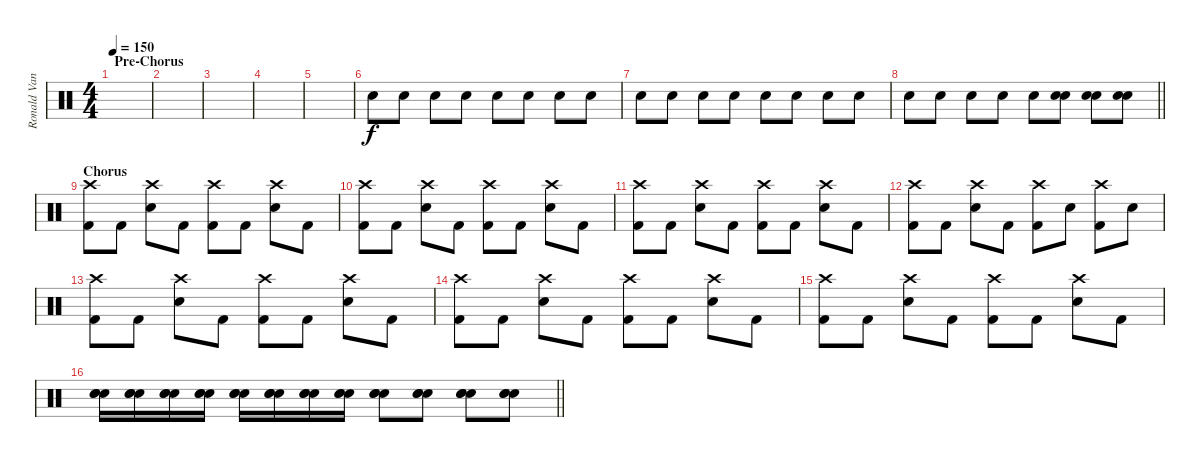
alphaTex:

\track ("Ronald Vanucci Jr (Drums)" "Ronald Van") {instrument percussion}
\staff {score}
\articulation defaults
\ts (4 4)
\section ("" "Pre-Chorus")
\tempo 150
\clef neutral
\ks c
|
|
|
|
|
"Snare (hit) 2".8{volume 14} "Snare (hit) 2".8 "Snare (hit) 2".8 "Snare (hit) 2".8 "Snare (hit) 2".8 "Snare (hit) 2".8 "Snare (hit) 2".8 "Snare (hit) 2".8 |
"Snare (hit) 2".8 "Snare (hit) 2".8 "Snare (hit) 2".8 "Snare (hit) 2".8 "Snare (hit) 2".8 "Snare (hit) 2".8 "Snare (hit) 2".8 "Snare (hit) 2".8 |
\barLineRight lightlight "Snare (hit) 2".8 "Snare (hit) 2".8 "Snare (hit) 2".8 "Snare (hit) 2".8 "Snare (hit) 2".8
("Electric Snare (hit)" "Snare (hit) 2").8 ("Electric Snare (hit)" "Snare (hit) 2").8 ("Electric Snare (hit)" "Snare (hit) 2").8 |
\section ("" "Chorus")
("Crash high (hit)" "Kick (hit) 2").8 "Kick (hit) 2".8 ("Crash high (hit)" "Snare (hit) 2").8 "Kick (hit) 2".8 ("Crash high (hit)" "Kick (hit) 2").8 "Kick (hit) 2".8 ("Crash high (hit)" "Snare (hit) 2").8 "Kick (hit) 2".8 |
("Crash high (hit)" "Kick (hit) 2").8 "Kick (hit) 2".8 ("Crash high (hit)" "Snare (hit) 2").8 "Kick (hit) 2".8 ("Crash high (hit)" "Kick (hit) 2").8 "Kick (hit) 2".8 ("Crash high (hit)" "Snare (hit) 2").8 "Kick (hit) 2".8 |
("Crash high (hit)" "Kick (hit) 2").8 "Kick (hit) 2".8 ("Crash high (hit)" "Snare (hit) 2").8 "Kick (hit) 2".8 ("Crash high (hit)" "Kick (hit) 2").8 "Kick (hit) 2".8 ("Crash high (hit)" "Snare (hit) 2").8 "Kick (hit) 2".8 |
("Crash high (hit)" "Kick (hit) 2").8 "Kick (hit) 2".8 ("Crash high (hit)" "Snare (hit) 2").8 "Kick (hit) 2".8 ("Crash high (hit)" "Kick (hit) 2").8 "Snare (hit) 2".8 ("Crash high (hit)" "Kick (hit) 2").8 "Snare (hit) 2".8 |
("Crash high (hit)" "Kick (hit) 2").8 "Kick (hit) 2".8 ("Crash high (hit)" "Snare (hit) 2").8 "Kick (hit) 2".8 ("Crash high (hit)" "Kick (hit) 2").8 "Kick (hit) 2".8 ("Crash high (hit)" "Snare (hit) 2").8 "Kick (hit) 2".8 |
("Crash high (hit)" "Kick (hit) 2").8 "Kick (hit) 2".8 ("Crash high (hit)" "Snare (hit) 2").8 "Kick (hit) 2".8 ("Crash high (hit)" "Kick (hit) 2").8 "Kick (hit) 2".8 ("Crash high (hit)" "Snare (hit) 2").8 "Kick (hit) 2".8 |
("Crash high (hit)" "Kick (hit) 2").8 "Kick (hit) 2".8 ("Crash high (hit)" "Snare (hit) 2").8 "Kick (hit) 2".8 ("Crash high (hit)" "Kick (hit) 2").8 "Kick (hit) 2".8 ("Crash high (hit)" "Snare (hit) 2").8 "Kick (hit) 2".8 |
\barLineRight lightlight
("Hand Clap (hit)" "Electric Snare (hit)" "Snare (hit) 2").16 ("Hand Clap (hit)" "Electric Snare (hit)" "Snare (hit) 2").16 ("Hand Clap (hit)" "Electric Snare (hit)" "Snare (hit) 2").16 ("Hand Clap (hit)" "Electric Snare (hit)" "Snare (hit) 2").16 ("Hand Clap (hit)" "Electric Snare (hit)" "Snare (hit) 2").16 ("Hand Clap (hit)" "Electric Snare (hit)" "Snare (hit) 2").16 ("Hand Clap (hit)" "Electric Snare (hit)" "Snare (hit) 2").16 ("Hand Clap (hit)" "Electric Snare (hit)" "Snare (hit) 2").16 ("Hand Clap (hit)" "Electric Snare (hit)" "Snare (hit) 2").8 ("Hand Clap (hit)" "Electric Snare (hit)" "Snare (hit) 2").8 ("Hand Clap (hit)" "Electric Snare (hit)" "Snare (hit) 2").8 ("Hand Clap (hit)" "Electric Snare (hit)" "Snare (hit) 2").8
